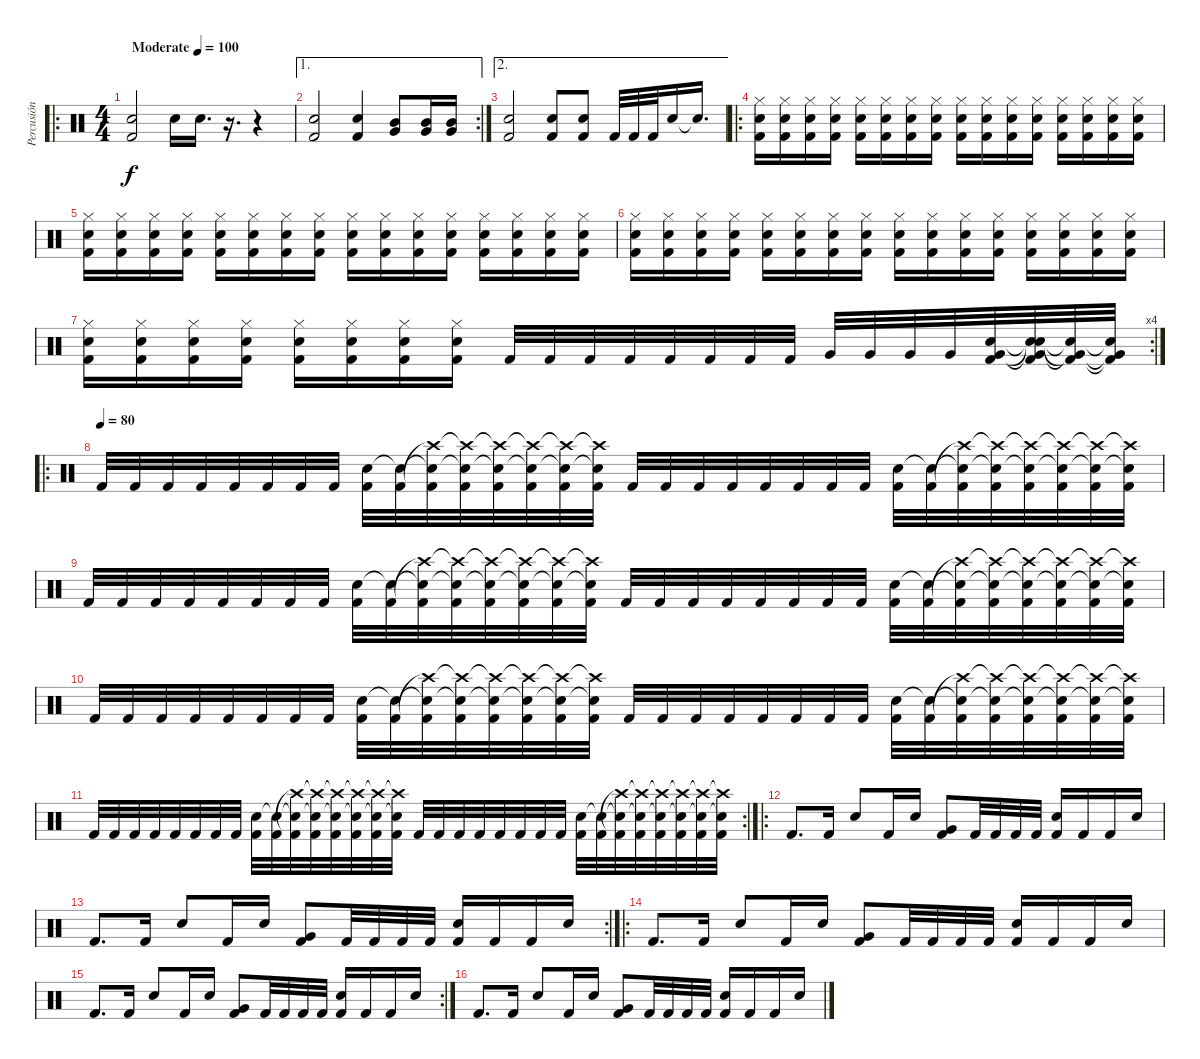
\track ("Percusión" "Percusión") {instrument percussion}
\staff {score}
\articulation defaults
\ro
\ts (4 4)
\tempo (100 "Moderate")
\clef neutral
\ks c
("Snare (hit) 2" "Kick (hit) 2").2{dy f} "Snare (hit) 2".16 "Snare (hit) 2".16{d} r.16{d} r.4 |
\ae 1
\rc 2
("Snare (hit) 2" "Kick (hit) 2").2 ("Snare (hit) 2" "Kick (hit) 2").4 ("Very Low Tom (hit)" "Mid Tom (hit)").8 ("Very Low Tom (hit)" "Mid Tom (hit)").16 ("Very Low Tom (hit)" "Mid Tom (hit)").16 |
\ae 2
("Snare (hit) 2" "Kick (hit) 2").2 ("Snare (hit) 2" "Kick (hit) 2").8 ("Snare (hit) 2" "Kick (hit) 2").8 "Kick (hit) 2".32 "Kick (hit) 2".32 "Kick (hit) 2".32 "Snare (hit) 2".16 "Snare (hit)"{t}.16{d} |
\ro
("Hi-Hat (closed)" "Snare (hit) 2" "Kick (hit) 2").16 ("Hi-Hat (closed)" "Snare (hit) 2" "Kick (hit) 2").16 ("Hi-Hat (closed)" "Snare (hit) 2" "Kick (hit) 2").16 ("Hi-Hat (closed)" "Snare (hit) 2" "Kick (hit) 2").16 ("Hi-Hat (closed)" "Snare (hit) 2" "Kick (hit) 2").16 ("Hi-Hat (closed)" "Snare (hit) 2" "Kick (hit) 2").16 ("Hi-Hat (closed)" "Snare (hit) 2" "Kick (hit) 2").16 ("Hi-Hat (closed)" "Snare (hit) 2" "Kick (hit) 2").16 ("Hi-Hat (closed)" "Snare (hit) 2" "Kick (hit) 2").16 ("Hi-Hat (closed)" "Snare (hit) 2" "Kick (hit) 2").16 ("Hi-Hat (closed)" "Snare (hit) 2" "Kick (hit) 2").16 ("Hi-Hat (closed)" "Snare (hit) 2" "Kick (hit) 2").16 ("Hi-Hat (closed)" "Snare (hit) 2" "Kick (hit) 2").16 ("Hi-Hat (closed)" "Snare (hit) 2" "Kick (hit) 2").16 ("Hi-Hat (closed)" "Snare (hit) 2" "Kick (hit) 2").16 ("Hi-Hat (closed)" "Snare (hit) 2" "Kick (hit) 2").16 |
("Hi-Hat (closed)" "Snare (hit) 2" "Kick (hit) 2").16 ("Hi-Hat (closed)" "Snare (hit) 2" "Kick (hit) 2").16 ("Hi-Hat (closed)" "Snare (hit) 2" "Kick (hit) 2").16 ("Hi-Hat (closed)" "Snare (hit) 2" "Kick (hit) 2").16 ("Hi-Hat (closed)" "Snare (hit) 2" "Kick (hit) 2").16 ("Hi-Hat (closed)" "Snare (hit) 2" "Kick (hit) 2").16 ("Hi-Hat (closed)" "Snare (hit) 2" "Kick (hit) 2").16 ("Hi-Hat (closed)" "Snare (hit) 2" "Kick (hit) 2").16 ("Hi-Hat (closed)" "Snare (hit) 2" "Kick (hit) 2").16 ("Hi-Hat (closed)" "Snare (hit) 2" "Kick (hit) 2").16 ("Hi-Hat (closed)" "Snare (hit) 2" "Kick (hit) 2").16 ("Hi-Hat (closed)" "Snare (hit) 2" "Kick (hit) 2").16 ("Hi-Hat (closed)" "Snare (hit) 2" "Kick (hit) 2").16 ("Hi-Hat (closed)" "Snare (hit) 2" "Kick (hit) 2").16 ("Hi-Hat (closed)" "Snare (hit) 2" "Kick (hit) 2").16 ("Hi-Hat (closed)" "Snare (hit) 2" "Kick (hit) 2").16 |
("Hi-Hat (closed)" "Snare (hit) 2" "Kick (hit) 2").16 ("Hi-Hat (closed)" "Snare (hit) 2" "Kick (hit) 2").16 ("Hi-Hat (closed)" "Snare (hit) 2" "Kick (hit) 2").16 ("Hi-Hat (closed)" "Snare (hit) 2" "Kick (hit) 2").16 ("Hi-Hat (closed)" "Snare (hit) 2" "Kick (hit) 2").16 ("Hi-Hat (closed)" "Snare (hit) 2" "Kick (hit) 2").16 ("Hi-Hat (closed)" "Snare (hit) 2" "Kick (hit) 2").16 ("Hi-Hat (closed)" "Snare (hit) 2" "Kick (hit) 2").16 ("Hi-Hat (closed)" "Snare (hit) 2" "Kick (hit) 2").16 ("Hi-Hat (closed)" "Snare (hit) 2" "Kick (hit) 2").16 ("Hi-Hat (closed)" "Snare (hit) 2" "Kick (hit) 2").16 ("Hi-Hat (closed)" "Snare (hit) 2" "Kick (hit) 2").16 ("Hi-Hat (closed)" "Snare (hit) 2" "Kick (hit) 2").16 ("Hi-Hat (closed)" "Snare (hit) 2" "Kick (hit) 2").16 ("Hi-Hat (closed)" "Snare (hit) 2" "Kick (hit) 2").16 ("Hi-Hat (closed)" "Snare (hit) 2" "Kick (hit) 2").16 |
\rc 4
("Hi-Hat (closed)" "Snare (hit) 2" "Kick (hit) 2").16 ("Hi-Hat (closed)" "Snare (hit) 2" "Kick (hit) 2").16 ("Hi-Hat (closed)" "Snare (hit) 2" "Kick (hit) 2").16 ("Hi-Hat (closed)" "Snare (hit) 2" "Kick (hit) 2").16 ("Hi-Hat (closed)" "Snare (hit) 2" "Kick (hit) 2").16 ("Hi-Hat (closed)" "Snare (hit) 2" "Kick (hit) 2").16 ("Hi-Hat (closed)" "Snare (hit) 2" "Kick (hit) 2").16 ("Hi-Hat (closed)" "Snare (hit) 2" "Kick (hit) 2").16 "Kick (hit) 2".32 "Kick (hit) 2".32 "Kick (hit) 2".32 "Kick (hit) 2".32 "Kick (hit) 2".32 "Kick (hit) 2".32 "Kick (hit) 2".32 "Kick (hit) 2".32 "Very Low Tom (hit)".32 "Very Low Tom (hit)".32 "Very Low Tom (hit)".32 "Very Low Tom (hit)".32 ("Very Low Tom (hit)" "Snare (hit) 2" "Kick (hit) 2").32 ("Very Low Tom (hit)"{t} "Snare (hit) 2"{t} "Snare (hit)"{t} "Kick (hit) 2").32 ("Very Low Tom (hit)"{t} "Snare (hit) 2"{t} "Kick (hit) 2"{t}).32 ("Very Low Tom (hit)"{t} "Snare (hit) 2"{t} "Kick (hit) 2"{t}).32 |
\ro
\tempo (80)
"Kick (hit) 2".32 "Kick (hit) 2".32 "Kick (hit) 2".32 "Kick (hit) 2".32 "Kick (hit) 2".32 "Kick (hit) 2".32 "Kick (hit) 2".32 "Kick (hit) 2".32 ("Snare (hit) 2" "Kick (hit) 2").32 ("Snare (hit) 2"{t} "Kick (hit) 2").32 ("Snare (hit) 2"{t} "Crash high (hit)"{t} "Kick (hit) 2").32 ("Snare (hit) 2"{t} "Crash high (hit)"{t} "Kick (hit) 2").32 ("Snare (hit) 2"{t} "Crash high (hit)"{t} "Kick (hit) 2").32 ("Snare (hit) 2"{t} "Crash high (hit)"{t} "Kick (hit) 2").32 ("Snare (hit) 2"{t} "Crash high (hit)"{t} "Kick (hit) 2").32 ("Snare (hit) 2"{t} "Crash high (hit)"{t} "Kick (hit) 2").32 "Kick (hit) 2".32 "Kick (hit) 2".32 "Kick (hit) 2".32 "Kick (hit) 2".32 "Kick (hit) 2".32 "Kick (hit) 2".32 "Kick (hit) 2".32 "Kick (hit) 2".32 ("Snare (hit) 2" "Kick (hit) 2").32 ("Snare (hit) 2"{t} "Kick (hit) 2").32 ("Snare (hit) 2"{t} "Crash high (hit)"{t} "Kick (hit) 2").32 ("Snare (hit) 2"{t} "Crash high (hit)"{t} "Kick (hit) 2").32 ("Snare (hit) 2"{t} "Crash high (hit)"{t} "Kick (hit) 2").32 ("Snare (hit) 2"{t} "Crash high (hit)"{t} "Kick (hit) 2").32 ("Snare (hit) 2"{t} "Crash high (hit)"{t} "Kick (hit) 2").32 ("Snare (hit) 2"{t} "Crash high (hit)"{t} "Kick (hit) 2").32 |
"Kick (hit) 2".32 "Kick (hit) 2".32 "Kick (hit) 2".32 "Kick (hit) 2".32 "Kick (hit) 2".32 "Kick (hit) 2".32 "Kick (hit) 2".32 "Kick (hit) 2".32 ("Snare (hit) 2" "Kick (hit) 2").32 ("Snare (hit) 2"{t} "Kick (hit) 2").32 ("Snare (hit) 2"{t} "Crash high (hit)"{t} "Kick (hit) 2").32 ("Snare (hit) 2"{t} "Crash high (hit)"{t} "Kick (hit) 2").32 ("Snare (hit) 2"{t} "Crash high (hit)"{t} "Kick (hit) 2").32 ("Snare (hit) 2"{t} "Crash high (hit)"{t} "Kick (hit) 2").32 ("Snare (hit) 2"{t} "Crash high (hit)"{t} "Kick (hit) 2").32 ("Snare (hit) 2"{t} "Crash high (hit)"{t} "Kick (hit) 2").32 "Kick (hit) 2".32 "Kick (hit) 2".32 "Kick (hit) 2".32 "Kick (hit) 2".32 "Kick (hit) 2".32 "Kick (hit) 2".32 "Kick (hit) 2".32 "Kick (hit) 2".32 ("Snare (hit) 2" "Kick (hit) 2").32 ("Snare (hit) 2"{t} "Kick (hit) 2").32 ("Snare (hit) 2"{t} "Crash high (hit)"{t} "Kick (hit) 2").32 ("Snare (hit) 2"{t} "Crash high (hit)"{t} "Kick (hit) 2").32 ("Snare (hit) 2"{t} "Crash high (hit)"{t} "Kick (hit) 2").32 ("Snare (hit) 2"{t} "Crash high (hit)"{t} "Kick (hit) 2").32 ("Snare (hit) 2"{t} "Crash high (hit)"{t} "Kick (hit) 2").32 ("Snare (hit) 2"{t} "Crash high (hit)"{t} "Kick (hit) 2").32 |
"Kick (hit) 2".32 "Kick (hit) 2".32 "Kick (hit) 2".32 "Kick (hit) 2".32 "Kick (hit) 2".32 "Kick (hit) 2".32 "Kick (hit) 2".32 "Kick (hit) 2".32 ("Snare (hit) 2" "Kick (hit) 2").32 ("Snare (hit) 2"{t} "Kick (hit) 2").32 ("Snare (hit) 2"{t} "Crash high (hit)"{t} "Kick (hit) 2").32 ("Snare (hit) 2"{t} "Crash high (hit)"{t} "Kick (hit) 2").32 ("Snare (hit) 2"{t} "Crash high (hit)"{t} "Kick (hit) 2").32 ("Snare (hit) 2"{t} "Crash high (hit)"{t} "Kick (hit) 2").32 ("Snare (hit) 2"{t} "Crash high (hit)"{t} "Kick (hit) 2").32 ("Snare (hit) 2"{t} "Crash high (hit)"{t} "Kick (hit) 2").32 "Kick (hit) 2".32 "Kick (hit) 2".32 "Kick (hit) 2".32 "Kick (hit) 2".32 "Kick (hit) 2".32 "Kick (hit) 2".32 "Kick (hit) 2".32 "Kick (hit) 2".32 ("Snare (hit) 2" "Kick (hit) 2").32 ("Snare (hit) 2"{t} "Kick (hit) 2").32 ("Snare (hit) 2"{t} "Crash high (hit)"{t} "Kick (hit) 2").32 ("Snare (hit) 2"{t} "Crash high (hit)"{t} "Kick (hit) 2").32 ("Snare (hit) 2"{t} "Crash high (hit)"{t} "Kick (hit) 2").32 ("Snare (hit) 2"{t} "Crash high (hit)"{t} "Kick (hit) 2").32 ("Snare (hit) 2"{t} "Crash high (hit)"{t} "Kick (hit) 2").32 ("Snare (hit) 2"{t} "Crash high (hit)"{t} "Kick (hit) 2").32 |
\rc 2 "Kick (hit) 2".32 "Kick (hit) 2".32 "Kick (hit) 2".32 "Kick (hit) 2".32 "Kick (hit) 2".32 "Kick (hit) 2".32 "Kick (hit) 2".32 "Kick (hit) 2".32
("Snare (hit) 2" "Kick (hit) 2").32 ("Snare (hit) 2"{t} "Kick (hit) 2").32 ("Snare (hit) 2"{t} "Crash high (hit)"{t} "Kick (hit) 2").32 ("Snare (hit) 2"{t} "Crash high (hit)"{t} "Kick (hit) 2").32 ("Snare (hit) 2"{t} "Crash high (hit)"{t} "Kick (hit) 2").32 ("Snare (hit) 2"{t} "Crash high (hit)"{t} "Kick (hit) 2").32 ("Snare (hit) 2"{t} "Crash high (hit)"{t} "Kick (hit) 2").32 ("Snare (hit) 2"{t} "Crash high (hit)"{t} "Kick (hit) 2").32 "Kick (hit) 2".32 "Kick (hit) 2".32 "Kick (hit) 2".32 "Kick (hit) 2".32 "Kick (hit) 2".32 "Kick (hit) 2".32 "Kick (hit) 2".32 "Kick (hit) 2".32 ("Snare (hit) 2" "Kick (hit) 2").32 ("Snare (hit) 2"{t} "Kick (hit) 2").32 ("Snare (hit) 2"{t} "Crash high (hit)"{t} "Kick (hit) 2").32 ("Snare (hit) 2"{t} "Crash high (hit)"{t} "Kick (hit) 2").32 ("Snare (hit) 2"{t} "Crash high (hit)"{t} "Kick (hit) 2").32 ("Snare (hit) 2"{t} "Crash high (hit)"{t} "Kick (hit) 2").32 ("Snare (hit) 2"{t} "Crash high (hit)"{t} "Kick (hit) 2").32 ("Snare (hit) 2"{t} "Crash high (hit)"{t} "Kick (hit) 2").32 |
\ro "Kick (hit) 2".8{d} "Kick (hit) 2".16 "Snare (hit) 2".8 "Kick (hit) 2".16 "Snare (hit) 2".16
("Very Low Tom (hit)" "Kick (hit) 2").8 "Kick (hit) 2".32 "Kick (hit) 2".32 "Kick (hit) 2".32 "Kick (hit) 2".32 ("Snare (hit) 2" "Kick (hit) 2").16 "Kick (hit) 2".16 "Kick (hit) 2".16 "Snare (hit) 2".16 |
\rc 2 "Kick (hit) 2".8{d} "Kick (hit) 2".16 "Snare (hit) 2".8 "Kick (hit) 2".16 "Snare (hit) 2".16
("Very Low Tom (hit)" "Kick (hit) 2").8 "Kick (hit) 2".32 "Kick (hit) 2".32 "Kick (hit) 2".32 "Kick (hit) 2".32 ("Snare (hit) 2" "Kick (hit) 2").16 "Kick (hit) 2".16 "Kick (hit) 2".16 "Snare (hit) 2".16 |
\ro "Kick (hit) 2".8{d} "Kick (hit) 2".16 "Snare (hit) 2".8 "Kick (hit) 2".16 "Snare (hit) 2".16
("Very Low Tom (hit)" "Kick (hit) 2").8 "Kick (hit) 2".32 "Kick (hit) 2".32 "Kick (hit) 2".32 "Kick (hit) 2".32 ("Snare (hit) 2" "Kick (hit) 2").16 "Kick (hit) 2".16 "Kick (hit) 2".16 "Snare (hit) 2".16 |
\rc 2 "Kick (hit) 2".8{d} "Kick (hit) 2".16 "Snare (hit) 2".8 "Kick (hit) 2".16 "Snare (hit) 2".16
("Very Low Tom (hit)" "Kick (hit) 2").8 "Kick (hit) 2".32 "Kick (hit) 2".32 "Kick (hit) 2".32 "Kick (hit) 2".32 ("Snare (hit) 2" "Kick (hit) 2").16 "Kick (hit) 2".16 "Kick (hit) 2".16 "Snare (hit) 2".16 |
"Kick (hit) 2".8{d} "Kick (hit) 2".16 "Snare (hit) 2".8 "Kick (hit) 2".16 "Snare (hit) 2".16 ("Very Low Tom (hit)" "Kick (hit) 2").8 "Kick (hit) 2".32 "Kick (hit) 2".32 "Kick (hit) 2".32 "Kick (hit) 2".32 ("Snare (hit) 2" "Kick (hit) 2").16 "Kick (hit) 2".16 "Kick (hit) 2".16 "Snare (hit) 2".16
